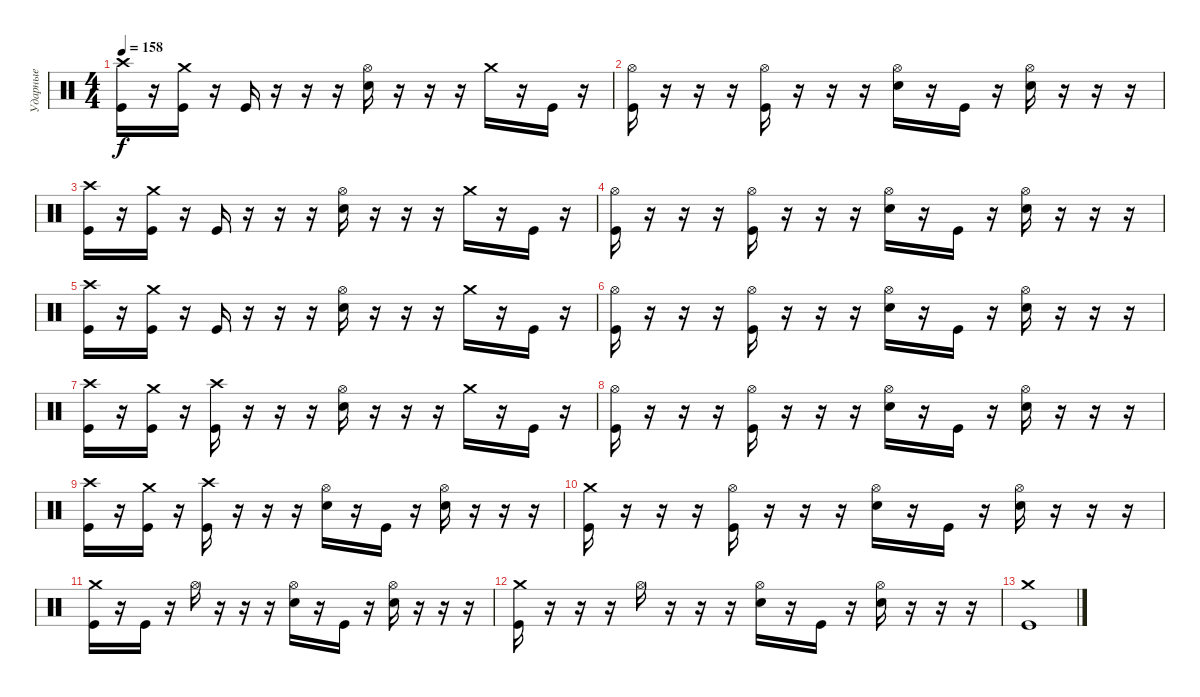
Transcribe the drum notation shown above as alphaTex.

\track ("Ударные" "Ударные") {instrument percussion}
\staff {score}
\articulation defaults
\ts (4 4)
\tempo 158
\clef neutral
\ks c
("Crash high (hit)" "Kick (hit)").16{dy f} r.16 ("Crash medium (hit)" "Kick (hit)").16 r.16 "Kick (hit)".16 r.16 r.16 r.16 ("Hi-Hat (open)" "Electric Snare (hit)").16 r.16 r.16 r.16 "Crash medium (hit)".16 r.16 "Kick (hit)".16 r.16 |
("Hi-Hat (open)" "Kick (hit)").16 r.16 r.16 r.16 ("Hi-Hat (open)" "Kick (hit)").16 r.16 r.16 r.16 ("Hi-Hat (open)" "Electric Snare (hit)").16 r.16 "Kick (hit)".16 r.16 ("Hi-Hat (open)" "Electric Snare (hit)").16 r.16 r.16 r.16 |
("Crash high (hit)" "Kick (hit)").16 r.16 ("Crash medium (hit)" "Kick (hit)").16 r.16 "Kick (hit)".16 r.16 r.16 r.16 ("Hi-Hat (open)" "Electric Snare (hit)").16 r.16 r.16 r.16 "Crash medium (hit)".16 r.16 "Kick (hit)".16 r.16 |
("Hi-Hat (open)" "Kick (hit)").16 r.16 r.16 r.16 ("Hi-Hat (open)" "Kick (hit)").16 r.16 r.16 r.16 ("Hi-Hat (open)" "Electric Snare (hit)").16 r.16 "Kick (hit)".16 r.16 ("Hi-Hat (open)" "Electric Snare (hit)").16 r.16 r.16 r.16 |
("Crash high (hit)" "Kick (hit)").16 r.16 ("Crash medium (hit)" "Kick (hit)").16 r.16 "Kick (hit)".16 r.16 r.16 r.16 ("Hi-Hat (open)" "Electric Snare (hit)").16 r.16 r.16 r.16 "Crash medium (hit)".16 r.16 "Kick (hit)".16 r.16 |
("Hi-Hat (open)" "Kick (hit)").16 r.16 r.16 r.16 ("Hi-Hat (open)" "Kick (hit)").16 r.16 r.16 r.16 ("Hi-Hat (open)" "Electric Snare (hit)").16 r.16 "Kick (hit)".16 r.16 ("Hi-Hat (open)" "Electric Snare (hit)").16 r.16 r.16 r.16 |
("Crash high (hit)" "Kick (hit)").16 r.16 ("Crash medium (hit)" "Kick (hit)").16 r.16 ("Crash high (hit)" "Kick (hit)").16 r.16 r.16 r.16 ("Hi-Hat (open)" "Electric Snare (hit)").16 r.16 r.16 r.16 "Crash medium (hit)".16 r.16 "Kick (hit)".16 r.16 |
("Hi-Hat (open)" "Kick (hit)").16 r.16 r.16 r.16 ("Hi-Hat (open)" "Kick (hit)").16 r.16 r.16 r.16 ("Hi-Hat (open)" "Electric Snare (hit)").16 r.16 "Kick (hit)".16 r.16 ("Hi-Hat (open)" "Electric Snare (hit)").16 r.16 r.16 r.16 |
("Crash high (hit)" "Kick (hit)").16 r.16 ("Crash medium (hit)" "Kick (hit)").16 r.16 ("Crash high (hit)" "Kick (hit)").16 r.16 r.16 r.16 ("Hi-Hat (open)" "Electric Snare (hit)").16 r.16 "Kick (hit)".16 r.16 ("Hi-Hat (open)" "Electric Snare (hit)").16 r.16 r.16 r.16 |
("Crash medium (hit)" "Kick (hit)").16 r.16 r.16 r.16 ("Hi-Hat (open)" "Kick (hit)").16 r.16 r.16 r.16 ("Hi-Hat (open)" "Electric Snare (hit)").16 r.16 "Kick (hit)".16 r.16 ("Hi-Hat (open)" "Electric Snare (hit)").16 r.16 r.16 r.16 |
("Crash medium (hit)" "Kick (hit)").16 r.16 "Kick (hit)".16 r.16 "Hi-Hat (open)".16 r.16 r.16 r.16 ("Hi-Hat (open)" "Electric Snare (hit)").16 r.16 "Kick (hit)".16 r.16 ("Hi-Hat (open)" "Electric Snare (hit)").16 r.16 r.16 r.16 |
("Crash medium (hit)" "Kick (hit)").16 r.16 r.16 r.16 "Hi-Hat (open)".16 r.16 r.16 r.16 ("Hi-Hat (open)" "Electric Snare (hit)").16 r.16 "Kick (hit)".16 r.16 ("Hi-Hat (open)" "Electric Snare (hit)").16 r.16 r.16 r.16 |
("Crash medium (hit)" "Kick (hit)").1
